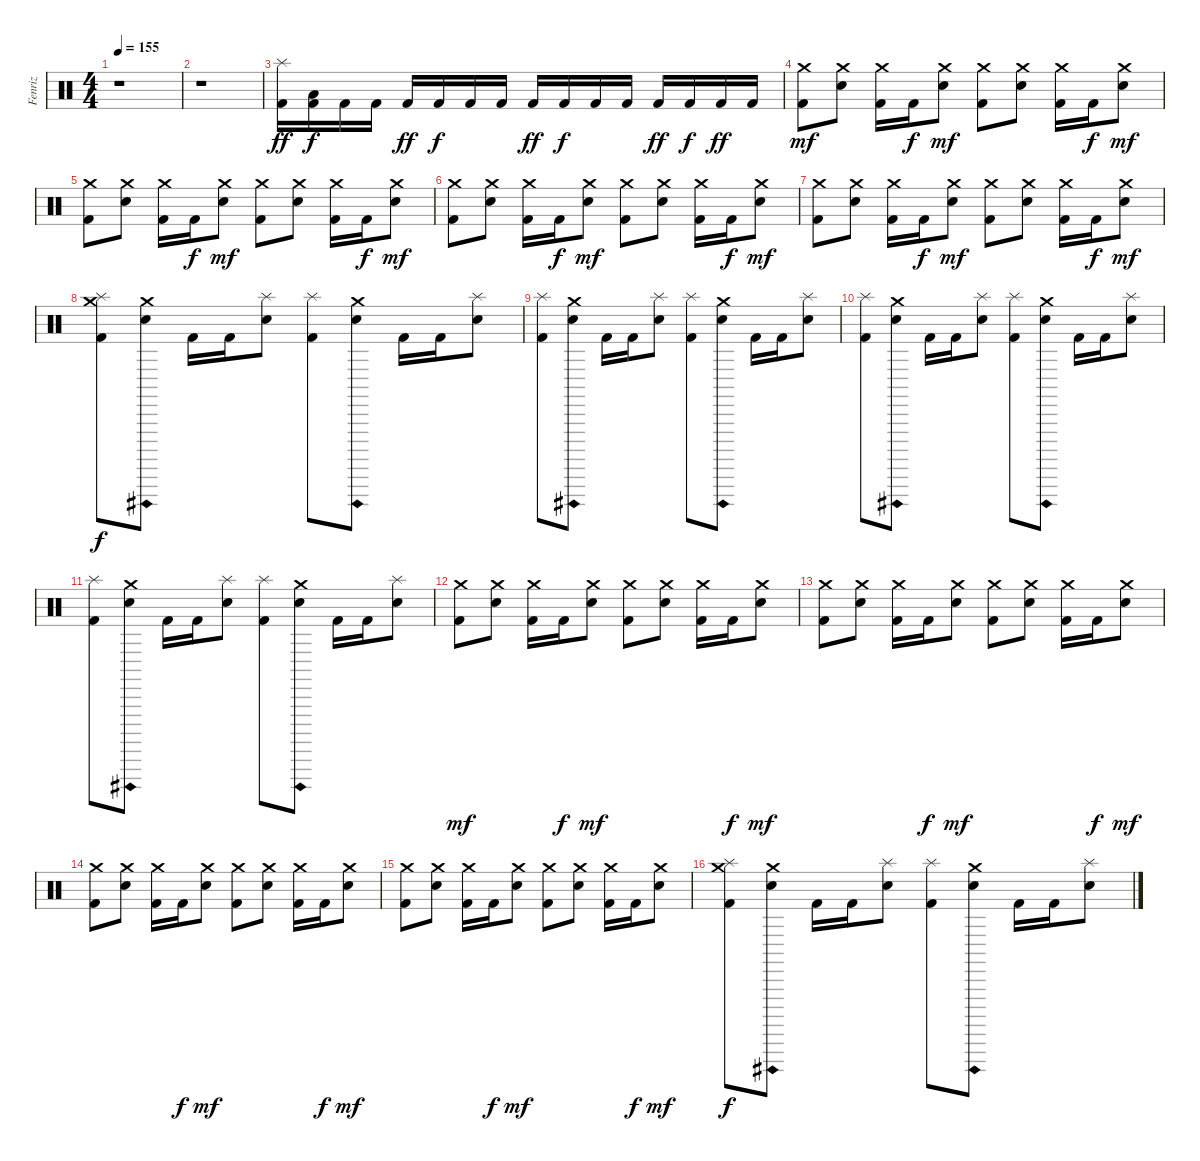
\track ("Fenriz" "Fenriz") {instrument percussion}
\staff {score}
\articulation defaults
\ts (4 4)
\tempo 155
\clef neutral
\ks c
r.1{dy mp} |
r.1 |
("Kick (hit) 2" "Splash (hit)").16{dy ff} ("Kick (hit) 2" "Low Tom (hit)").16{dy f} "Kick (hit) 2".16 "Kick (hit) 2".16 "Kick (hit) 2".16{dy ff} "Kick (hit) 2".16{dy f} "Kick (hit) 2".16 "Kick (hit) 2".16 "Kick (hit) 2".16{dy ff} "Kick (hit) 2".16{dy f} "Kick (hit) 2".16 "Kick (hit) 2".16 "Kick (hit) 2".16{dy ff} "Kick (hit) 2".16{dy f} "Kick (hit) 2".16{dy ff} "Kick (hit) 2".16 |
("Kick (hit) 2" "Crash medium (hit)").8{dy mf} ("Electric Snare (hit)" "Crash medium (hit)").8 ("Kick (hit) 2" "Crash medium (hit)").16 "Kick (hit) 2".16{dy f} ("Electric Snare (hit)" "Crash medium (hit)").8{dy mf} ("Kick (hit) 2" "Crash medium (hit)").8 ("Electric Snare (hit)" "Crash medium (hit)").8 ("Kick (hit) 2" "Crash medium (hit)").16 "Kick (hit) 2".16{dy f} ("Electric Snare (hit)" "Crash medium (hit)").8{dy mf} |
("Kick (hit) 2" "Crash medium (hit)").8 ("Electric Snare (hit)" "Crash medium (hit)").8 ("Kick (hit) 2" "Crash medium (hit)").16 "Kick (hit) 2".16{dy f} ("Electric Snare (hit)" "Crash medium (hit)").8{dy mf} ("Kick (hit) 2" "Crash medium (hit)").8 ("Electric Snare (hit)" "Crash medium (hit)").8 ("Kick (hit) 2" "Crash medium (hit)").16 "Kick (hit) 2".16{dy f} ("Electric Snare (hit)" "Crash medium (hit)").8{dy mf} |
("Kick (hit) 2" "Crash medium (hit)").8 ("Electric Snare (hit)" "Crash medium (hit)").8 ("Kick (hit) 2" "Crash medium (hit)").16 "Kick (hit) 2".16{dy f} ("Electric Snare (hit)" "Crash medium (hit)").8{dy mf} ("Kick (hit) 2" "Crash medium (hit)").8 ("Electric Snare (hit)" "Crash medium (hit)").8 ("Kick (hit) 2" "Crash medium (hit)").16 "Kick (hit) 2".16{dy f} ("Electric Snare (hit)" "Crash medium (hit)").8{dy mf} |
("Kick (hit) 2" "Crash medium (hit)").8 ("Electric Snare (hit)" "Crash medium (hit)").8 ("Kick (hit) 2" "Crash medium (hit)").16 "Kick (hit) 2".16{dy f} ("Electric Snare (hit)" "Crash medium (hit)").8{dy mf} ("Kick (hit) 2" "Crash medium (hit)").8 ("Electric Snare (hit)" "Crash medium (hit)").8 ("Kick (hit) 2" "Crash medium (hit)").16 "Kick (hit) 2".16{dy f} ("Electric Snare (hit)" "Crash medium (hit)").8{dy mf} |
("Kick (hit) 2" "Crash medium (hit)" "Splash (hit)").8{dy f} ("Electric Snare (hit)" "Crash medium (hit)"{ah 12}).8 "Kick (hit) 2".16 "Kick (hit) 2".16 ("Electric Snare (hit)" "Splash (hit)").8 ("Kick (hit) 2" "Splash (hit)").8 ("Electric Snare (hit)" "Crash medium (hit)"{ah 12}).8 "Kick (hit) 2".16 "Kick (hit) 2".16 ("Electric Snare (hit)" "Splash (hit)").8 |
("Kick (hit) 2" "Splash (hit)").8 ("Electric Snare (hit)" "Crash medium (hit)"{ah 12}).8 "Kick (hit) 2".16 "Kick (hit) 2".16 ("Electric Snare (hit)" "Splash (hit)").8 ("Kick (hit) 2" "Splash (hit)").8 ("Electric Snare (hit)" "Crash medium (hit)"{ah 12}).8 "Kick (hit) 2".16 "Kick (hit) 2".16 ("Electric Snare (hit)" "Splash (hit)").8 |
("Kick (hit) 2" "Splash (hit)").8 ("Electric Snare (hit)" "Crash medium (hit)"{ah 12}).8 "Kick (hit) 2".16 "Kick (hit) 2".16 ("Electric Snare (hit)" "Splash (hit)").8 ("Kick (hit) 2" "Splash (hit)").8 ("Electric Snare (hit)" "Crash medium (hit)"{ah 12}).8 "Kick (hit) 2".16 "Kick (hit) 2".16 ("Electric Snare (hit)" "Splash (hit)").8 |
("Kick (hit) 2" "Splash (hit)").8 ("Electric Snare (hit)" "Crash medium (hit)"{ah 12}).8 "Kick (hit) 2".16 "Kick (hit) 2".16 ("Electric Snare (hit)" "Splash (hit)").8 ("Kick (hit) 2" "Splash (hit)").8 ("Electric Snare (hit)" "Crash medium (hit)"{ah 12}).8 "Kick (hit) 2".16 "Kick (hit) 2".16 ("Electric Snare (hit)" "Splash (hit)").8 |
("Kick (hit) 2" "Crash medium (hit)").8{dy mf} ("Electric Snare (hit)" "Crash medium (hit)").8 ("Kick (hit) 2" "Crash medium (hit)").16 "Kick (hit) 2".16{dy f} ("Electric Snare (hit)" "Crash medium (hit)").8{dy mf} ("Kick (hit) 2" "Crash medium (hit)").8 ("Electric Snare (hit)" "Crash medium (hit)").8 ("Kick (hit) 2" "Crash medium (hit)").16 "Kick (hit) 2".16{dy f} ("Electric Snare (hit)" "Crash medium (hit)").8{dy mf} |
("Kick (hit) 2" "Crash medium (hit)").8 ("Electric Snare (hit)" "Crash medium (hit)").8 ("Kick (hit) 2" "Crash medium (hit)").16 "Kick (hit) 2".16{dy f} ("Electric Snare (hit)" "Crash medium (hit)").8{dy mf} ("Kick (hit) 2" "Crash medium (hit)").8 ("Electric Snare (hit)" "Crash medium (hit)").8 ("Kick (hit) 2" "Crash medium (hit)").16 "Kick (hit) 2".16{dy f} ("Electric Snare (hit)" "Crash medium (hit)").8{dy mf} |
("Kick (hit) 2" "Crash medium (hit)").8 ("Electric Snare (hit)" "Crash medium (hit)").8 ("Kick (hit) 2" "Crash medium (hit)").16 "Kick (hit) 2".16{dy f} ("Electric Snare (hit)" "Crash medium (hit)").8{dy mf} ("Kick (hit) 2" "Crash medium (hit)").8 ("Electric Snare (hit)" "Crash medium (hit)").8 ("Kick (hit) 2" "Crash medium (hit)").16 "Kick (hit) 2".16{dy f} ("Electric Snare (hit)" "Crash medium (hit)").8{dy mf} |
("Kick (hit) 2" "Crash medium (hit)").8 ("Electric Snare (hit)" "Crash medium (hit)").8 ("Kick (hit) 2" "Crash medium (hit)").16 "Kick (hit) 2".16{dy f} ("Electric Snare (hit)" "Crash medium (hit)").8{dy mf} ("Kick (hit) 2" "Crash medium (hit)").8 ("Electric Snare (hit)" "Crash medium (hit)").8 ("Kick (hit) 2" "Crash medium (hit)").16 "Kick (hit) 2".16{dy f} ("Electric Snare (hit)" "Crash medium (hit)").8{dy mf} |
("Kick (hit) 2" "Crash medium (hit)" "Splash (hit)").8{dy f} ("Electric Snare (hit)" "Crash medium (hit)"{ah 12}).8 "Kick (hit) 2".16 "Kick (hit) 2".16 ("Electric Snare (hit)" "Splash (hit)").8 ("Kick (hit) 2" "Splash (hit)").8 ("Electric Snare (hit)" "Crash medium (hit)"{ah 12}).8 "Kick (hit) 2".16 "Kick (hit) 2".16 ("Electric Snare (hit)" "Splash (hit)").8
